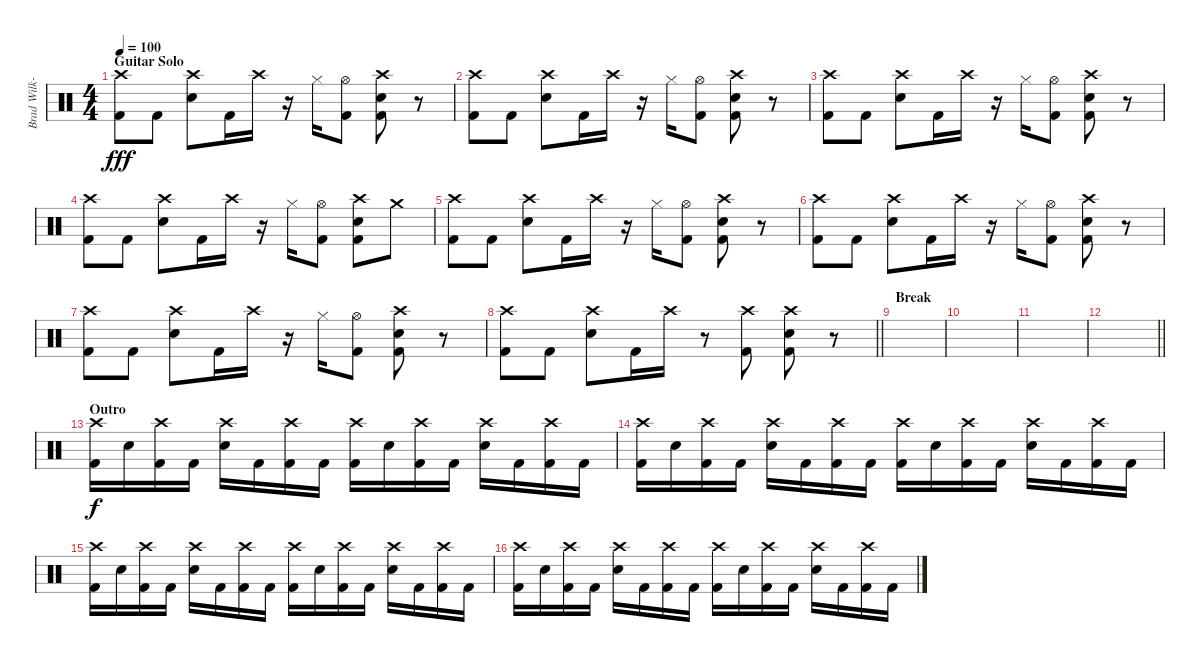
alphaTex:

\track ("Brad Wilk-Drums" "Brad Wilk-") {instrument percussion}
\staff {score}
\articulation defaults
\ts (4 4)
\section ("" "Guitar Solo")
\tempo 100
\clef neutral
\ks c
("Crash high (hit)" "Kick (hit) 2").8{dy fff} "Kick (hit) 2".8 ("Crash high (hit)" "Electric Snare (hit)").8 "Kick (hit) 2".16 "Crash high (hit)".16 r.16 "Hi-Hat (closed)".16 ("Hi-Hat (open)" "Kick (hit) 2").8 ("Crash high (hit)" "Electric Snare (hit)" "Kick (hit) 2").8 r.8 |
("Crash high (hit)" "Kick (hit) 2").8 "Kick (hit) 2".8 ("Crash high (hit)" "Electric Snare (hit)").8 "Kick (hit) 2".16 "Crash high (hit)".16 r.16 "Hi-Hat (closed)".16 ("Hi-Hat (open)" "Kick (hit) 2").8 ("Crash high (hit)" "Electric Snare (hit)" "Kick (hit) 2").8 r.8 |
("Crash high (hit)" "Kick (hit) 2").8 "Kick (hit) 2".8 ("Crash high (hit)" "Electric Snare (hit)").8 "Kick (hit) 2".16 "Crash high (hit)".16 r.16 "Hi-Hat (closed)".16 ("Hi-Hat (open)" "Kick (hit) 2").8 ("Crash high (hit)" "Electric Snare (hit)" "Kick (hit) 2").8 r.8 |
("Crash high (hit)" "Kick (hit) 2").8 "Kick (hit) 2".8 ("Crash high (hit)" "Electric Snare (hit)").8 "Kick (hit) 2".16 "Crash high (hit)".16 r.16 "Hi-Hat (closed)".16 ("Hi-Hat (open)" "Kick (hit) 2").8 ("Crash high (hit)" "Electric Snare (hit)" "Kick (hit) 2").8 "Crash medium (hit)".8 |
("Crash high (hit)" "Kick (hit) 2").8 "Kick (hit) 2".8 ("Crash high (hit)" "Electric Snare (hit)").8 "Kick (hit) 2".16 "Crash high (hit)".16 r.16 "Hi-Hat (closed)".16 ("Hi-Hat (open)" "Kick (hit) 2").8 ("Crash high (hit)" "Electric Snare (hit)" "Kick (hit) 2").8 r.8 |
("Crash high (hit)" "Kick (hit) 2").8 "Kick (hit) 2".8 ("Crash high (hit)" "Electric Snare (hit)").8 "Kick (hit) 2".16 "Crash high (hit)".16 r.16 "Hi-Hat (closed)".16 ("Hi-Hat (open)" "Kick (hit) 2").8 ("Crash high (hit)" "Electric Snare (hit)" "Kick (hit) 2").8 r.8 |
("Crash high (hit)" "Kick (hit) 2").8 "Kick (hit) 2".8 ("Crash high (hit)" "Electric Snare (hit)").8 "Kick (hit) 2".16 "Crash high (hit)".16 r.16 "Hi-Hat (closed)".16 ("Hi-Hat (open)" "Kick (hit) 2").8 ("Crash high (hit)" "Electric Snare (hit)" "Kick (hit) 2").8 r.8 |
\barLineRight lightlight
("Crash high (hit)" "Kick (hit) 2").8 "Kick (hit) 2".8 ("Crash high (hit)" "Electric Snare (hit)").8 "Kick (hit) 2".16 "Crash high (hit)".16 r.8 ("Crash high (hit)" "Kick (hit) 2").8 ("Crash high (hit)" "Electric Snare (hit)" "Kick (hit) 2").8 r.8 |
\section ("" "Break")
|
|
|
\barLineRight lightlight
|
\section ("" "Outro")
("Crash high (hit)" "Kick (hit) 2").16{dy f} "Electric Snare (hit)".16 ("Crash high (hit)" "Kick (hit) 2").16 "Kick (hit) 2".16 ("Crash high (hit)" "Electric Snare (hit)").16 "Kick (hit) 2".16 ("Crash high (hit)" "Kick (hit) 2").16 "Kick (hit) 2".16 ("Crash high (hit)" "Kick (hit) 2").16 "Electric Snare (hit)".16 ("Crash high (hit)" "Kick (hit) 2").16 "Kick (hit) 2".16 ("Crash high (hit)" "Electric Snare (hit)").16 "Kick (hit) 2".16 ("Crash high (hit)" "Kick (hit) 2").16 "Kick (hit) 2".16 |
("Crash high (hit)" "Kick (hit) 2").16 "Electric Snare (hit)".16 ("Crash high (hit)" "Kick (hit) 2").16 "Kick (hit) 2".16 ("Crash high (hit)" "Electric Snare (hit)").16 "Kick (hit) 2".16 ("Crash high (hit)" "Kick (hit) 2").16 "Kick (hit) 2".16 ("Crash high (hit)" "Kick (hit) 2").16 "Electric Snare (hit)".16 ("Crash high (hit)" "Kick (hit) 2").16 "Kick (hit) 2".16 ("Crash high (hit)" "Electric Snare (hit)").16 "Kick (hit) 2".16 ("Crash high (hit)" "Kick (hit) 2").16 "Kick (hit) 2".16 |
("Crash high (hit)" "Kick (hit) 2").16 "Electric Snare (hit)".16 ("Crash high (hit)" "Kick (hit) 2").16 "Kick (hit) 2".16 ("Crash high (hit)" "Electric Snare (hit)").16 "Kick (hit) 2".16 ("Crash high (hit)" "Kick (hit) 2").16 "Kick (hit) 2".16 ("Crash high (hit)" "Kick (hit) 2").16 "Electric Snare (hit)".16 ("Crash high (hit)" "Kick (hit) 2").16 "Kick (hit) 2".16 ("Crash high (hit)" "Electric Snare (hit)").16 "Kick (hit) 2".16 ("Crash high (hit)" "Kick (hit) 2").16 "Kick (hit) 2".16 |
("Crash high (hit)" "Kick (hit) 2").16 "Electric Snare (hit)".16 ("Crash high (hit)" "Kick (hit) 2").16 "Kick (hit) 2".16 ("Crash high (hit)" "Electric Snare (hit)").16 "Kick (hit) 2".16 ("Crash high (hit)" "Kick (hit) 2").16 "Kick (hit) 2".16 ("Crash high (hit)" "Kick (hit) 2").16 "Electric Snare (hit)".16 ("Crash high (hit)" "Kick (hit) 2").16 "Kick (hit) 2".16 ("Crash high (hit)" "Electric Snare (hit)").16 "Kick (hit) 2".16 ("Crash high (hit)" "Kick (hit) 2").16 "Kick (hit) 2".16
